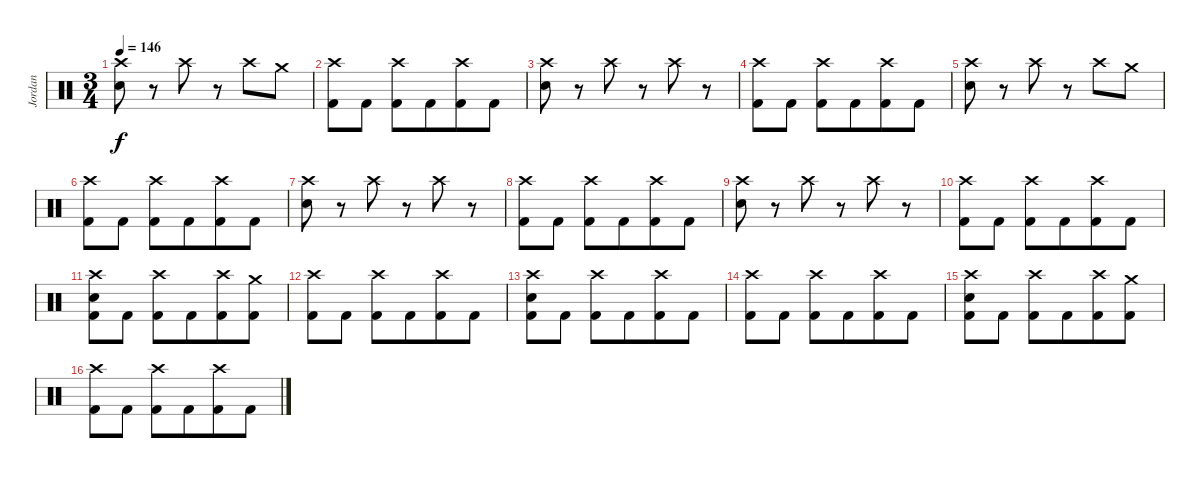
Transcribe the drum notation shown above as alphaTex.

\track ("Jordan" "Jordan") {instrument percussion}
\staff {score}
\articulation defaults
\ts (3 4)
\tempo 146
\clef neutral
\ks c
("Crash high (hit)" "Snare (hit) 2").8{dy f} r.8 "Crash high (hit)".8 r.8{beam merge} "Crash high (hit)".8{beam merge} "Crash medium (hit)".8 |
("Crash high (hit)" "Kick (hit) 2").8 "Kick (hit) 2".8 ("Crash high (hit)" "Kick (hit) 2").8 "Kick (hit) 2".8{beam merge} ("Crash high (hit)" "Kick (hit) 2").8{beam merge} "Kick (hit) 2".8 |
("Crash high (hit)" "Snare (hit) 2").8 r.8 "Crash high (hit)".8 r.8{beam merge} "Crash high (hit)".8 r.8 |
("Crash high (hit)" "Kick (hit) 2").8 "Kick (hit) 2".8 ("Crash high (hit)" "Kick (hit) 2").8 "Kick (hit) 2".8{beam merge} ("Crash high (hit)" "Kick (hit) 2").8{beam merge} "Kick (hit) 2".8 |
("Crash high (hit)" "Snare (hit) 2").8 r.8 "Crash high (hit)".8 r.8{beam merge} "Crash high (hit)".8{beam merge} "Crash medium (hit)".8 |
("Crash high (hit)" "Kick (hit) 2").8 "Kick (hit) 2".8 ("Crash high (hit)" "Kick (hit) 2").8 "Kick (hit) 2".8{beam merge} ("Crash high (hit)" "Kick (hit) 2").8{beam merge} "Kick (hit) 2".8 |
("Crash high (hit)" "Snare (hit) 2").8 r.8 "Crash high (hit)".8 r.8{beam merge} "Crash high (hit)".8 r.8 |
("Crash high (hit)" "Kick (hit) 2").8 "Kick (hit) 2".8 ("Crash high (hit)" "Kick (hit) 2").8 "Kick (hit) 2".8{beam merge} ("Crash high (hit)" "Kick (hit) 2").8{beam merge} "Kick (hit) 2".8 |
("Crash high (hit)" "Snare (hit) 2").8 r.8 "Crash high (hit)".8 r.8{beam merge} "Crash high (hit)".8 r.8 |
("Crash high (hit)" "Kick (hit) 2").8 "Kick (hit) 2".8 ("Crash high (hit)" "Kick (hit) 2").8 "Kick (hit) 2".8{beam merge} ("Crash high (hit)" "Kick (hit) 2").8{beam merge} "Kick (hit) 2".8 |
("Crash high (hit)" "Snare (hit) 2" "Kick (hit) 2").8 "Kick (hit) 2".8 ("Crash high (hit)" "Kick (hit) 2").8 "Kick (hit) 2".8{beam merge} ("Crash high (hit)" "Kick (hit) 2").8{beam merge} ("Crash medium (hit)" "Kick (hit) 2").8 |
("Crash high (hit)" "Kick (hit) 2").8 "Kick (hit) 2".8 ("Crash high (hit)" "Kick (hit) 2").8 "Kick (hit) 2".8{beam merge} ("Crash high (hit)" "Kick (hit) 2").8{beam merge} "Kick (hit) 2".8 |
("Crash high (hit)" "Snare (hit) 2" "Kick (hit) 2").8 "Kick (hit) 2".8 ("Crash high (hit)" "Kick (hit) 2").8 "Kick (hit) 2".8{beam merge} ("Crash high (hit)" "Kick (hit) 2").8 "Kick (hit) 2".8 |
("Crash high (hit)" "Kick (hit) 2").8 "Kick (hit) 2".8 ("Crash high (hit)" "Kick (hit) 2").8 "Kick (hit) 2".8{beam merge} ("Crash high (hit)" "Kick (hit) 2").8{beam merge} "Kick (hit) 2".8 |
("Crash high (hit)" "Snare (hit) 2" "Kick (hit) 2").8 "Kick (hit) 2".8 ("Crash high (hit)" "Kick (hit) 2").8 "Kick (hit) 2".8{beam merge} ("Crash high (hit)" "Kick (hit) 2").8{beam merge} ("Crash medium (hit)" "Kick (hit) 2").8 |
("Crash high (hit)" "Kick (hit) 2").8 "Kick (hit) 2".8 ("Crash high (hit)" "Kick (hit) 2").8 "Kick (hit) 2".8{beam merge} ("Crash high (hit)" "Kick (hit) 2").8{beam merge} "Kick (hit) 2".8
